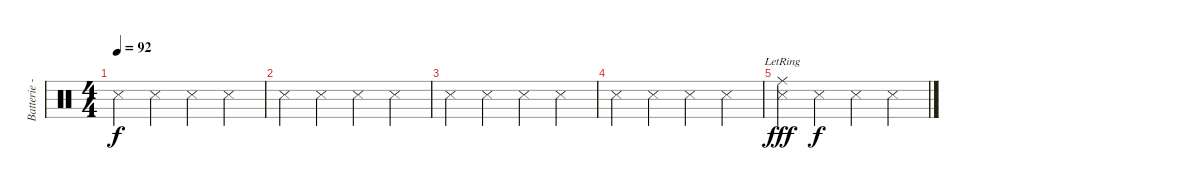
\track ("Batterie - Larry Mullen Jr." "Batterie -") {instrument percussion}
\staff {score}
\articulation defaults
\ts (4 4)
\tempo 92
\clef neutral
\ks c "Snare (side stick) 3".4{dy f} "Snare (side stick) 3".4 "Snare (side stick) 3".4 "Snare (side stick) 3".4
|
"Snare (side stick) 3".4 "Snare (side stick) 3".4 "Snare (side stick) 3".4 "Snare (side stick) 3".4 |
"Snare (side stick) 3".4 "Snare (side stick) 3".4 "Snare (side stick) 3".4 "Snare (side stick) 3".4 |
"Snare (side stick) 3".4 "Snare (side stick) 3".4 "Snare (side stick) 3".4 "Snare (side stick) 3".4 |
("Snare (side stick) 3" "Ride (middle)"{lr}).4{dy fff} "Snare (side stick) 3".4{dy f} "Snare (side stick) 3".4 "Snare (side stick) 3".4
